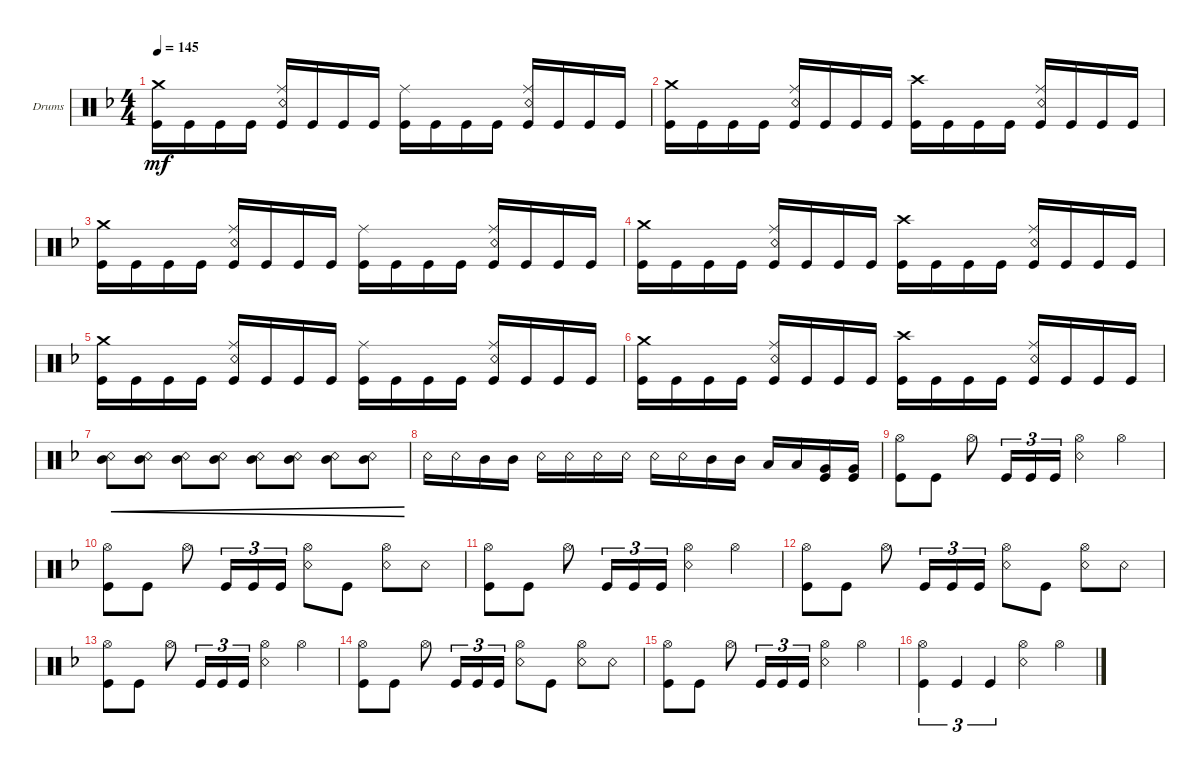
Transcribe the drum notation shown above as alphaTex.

\defaultSystemsLayout 4
\bracketExtendMode groupsimilarinstruments
\firstSystemTrackNameOrientation horizontal
\otherSystemsTrackNameOrientation horizontal
\track ("Drumkit" "Drums") {instrument percussion}
\staff {score}
\articulation defaults
\ts (4 4)
\tempo 145
\clef neutral
\ks dminor
("Kick (hit)" "Crash medium (hit)").16{dy mf} "Kick (hit)".16 "Kick (hit)".16 "Kick (hit)".16 ("Kick (hit)" "Ride (middle)" "Snare (rim shot)").16 "Kick (hit)".16 "Kick (hit)".16 "Kick (hit)".16 ("Kick (hit)" "Ride (middle)").16 "Kick (hit)".16 "Kick (hit)".16 "Kick (hit)".16 ("Kick (hit)" "Ride (middle)" "Snare (rim shot)").16 "Kick (hit)".16 "Kick (hit)".16 "Kick (hit)".16 |
("Kick (hit)" "Crash medium (hit)").16 "Kick (hit)".16 "Kick (hit)".16 "Kick (hit)".16 ("Kick (hit)" "Ride (middle)" "Snare (rim shot)").16 "Kick (hit)".16 "Kick (hit)".16 "Kick (hit)".16 ("Kick (hit)" "Crash high (hit)").16 "Kick (hit)".16 "Kick (hit)".16 "Kick (hit)".16 ("Kick (hit)" "Ride (middle)" "Snare (rim shot)").16 "Kick (hit)".16 "Kick (hit)".16 "Kick (hit)".16 |
("Kick (hit)" "Crash medium (hit)").16 "Kick (hit)".16 "Kick (hit)".16 "Kick (hit)".16 ("Kick (hit)" "Ride (middle)" "Snare (rim shot)").16 "Kick (hit)".16 "Kick (hit)".16 "Kick (hit)".16 ("Kick (hit)" "Ride (middle)").16 "Kick (hit)".16 "Kick (hit)".16 "Kick (hit)".16 ("Kick (hit)" "Ride (middle)" "Snare (rim shot)").16 "Kick (hit)".16 "Kick (hit)".16 "Kick (hit)".16 |
("Kick (hit)" "Crash medium (hit)").16 "Kick (hit)".16 "Kick (hit)".16 "Kick (hit)".16 ("Kick (hit)" "Ride (middle)" "Snare (rim shot)").16 "Kick (hit)".16 "Kick (hit)".16 "Kick (hit)".16 ("Kick (hit)" "Crash high (hit)").16 "Kick (hit)".16 "Kick (hit)".16 "Kick (hit)".16 ("Kick (hit)" "Ride (middle)" "Snare (rim shot)").16 "Kick (hit)".16 "Kick (hit)".16 "Kick (hit)".16 |
("Kick (hit)" "Crash medium (hit)").16 "Kick (hit)".16 "Kick (hit)".16 "Kick (hit)".16 ("Kick (hit)" "Ride (middle)" "Snare (rim shot)").16 "Kick (hit)".16 "Kick (hit)".16 "Kick (hit)".16 ("Kick (hit)" "Ride (middle)").16 "Kick (hit)".16 "Kick (hit)".16 "Kick (hit)".16 ("Kick (hit)" "Ride (middle)" "Snare (rim shot)").16 "Kick (hit)".16 "Kick (hit)".16 "Kick (hit)".16 |
("Kick (hit)" "Crash medium (hit)").16 "Kick (hit)".16 "Kick (hit)".16 "Kick (hit)".16 ("Kick (hit)" "Ride (middle)" "Snare (rim shot)").16 "Kick (hit)".16 "Kick (hit)".16 "Kick (hit)".16 ("Kick (hit)" "Crash high (hit)").16 "Kick (hit)".16 "Kick (hit)".16 "Kick (hit)".16 ("Kick (hit)" "Ride (middle)" "Snare (rim shot)").16 "Kick (hit)".16 "Kick (hit)".16 "Kick (hit)".16 |
("Snare (rim shot)" "Mid Tom (hit)").8{cre} ("Snare (rim shot)" "Mid Tom (hit)").8{cre} ("Snare (rim shot)" "Mid Tom (hit)").8{cre} ("Snare (rim shot)" "Mid Tom (hit)").8{cre} ("Snare (rim shot)" "Mid Tom (hit)").8{cre} ("Snare (rim shot)" "Mid Tom (hit)").8{cre} ("Snare (rim shot)" "Mid Tom (hit)").8{cre} ("Snare (rim shot)" "Mid Tom (hit)").8{cre} |
"Snare (rim shot)".16 "Snare (rim shot)".16 "Mid Tom (hit)".16 "Mid Tom (hit)".16 "Snare (rim shot)".16 "Snare (rim shot)".16 "Snare (rim shot)".16 "Snare (rim shot)".16 "Snare (rim shot)".16 "Snare (rim shot)".16 "Mid Tom (hit)".16 "Mid Tom (hit)".16 "Low Tom (hit)".16 "Low Tom (hit)".16 ("Kick (hit)" "Very Low Tom (hit)").16 ("Very Low Tom (hit)" "Kick (hit)").16 |
("Kick (hit)" "Hi-Hat (open)").8 "Kick (hit)".8 "Hi-Hat (open)".8 "Kick (hit)".16{tu (3 2)} "Kick (hit)".16{tu (3 2)} "Kick (hit)".16{tu (3 2)} ("Hi-Hat (open)" "Snare (rim shot)").4 "Hi-Hat (open)".4 |
("Kick (hit)" "Hi-Hat (open)").8 "Kick (hit)".8 "Hi-Hat (open)".8 "Kick (hit)".16{tu (3 2)} "Kick (hit)".16{tu (3 2)} "Kick (hit)".16{tu (3 2)} ("Hi-Hat (open)" "Snare (rim shot)").8 "Kick (hit)".8 ("Hi-Hat (open)" "Snare (rim shot)").8 "Snare (rim shot)".8 |
("Kick (hit)" "Hi-Hat (open)").8 "Kick (hit)".8 "Hi-Hat (open)".8 "Kick (hit)".16{tu (3 2)} "Kick (hit)".16{tu (3 2)} "Kick (hit)".16{tu (3 2)} ("Hi-Hat (open)" "Snare (rim shot)").4 "Hi-Hat (open)".4 |
("Kick (hit)" "Hi-Hat (open)").8 "Kick (hit)".8 "Hi-Hat (open)".8 "Kick (hit)".16{tu (3 2)} "Kick (hit)".16{tu (3 2)} "Kick (hit)".16{tu (3 2)} ("Hi-Hat (open)" "Snare (rim shot)").8 "Kick (hit)".8 ("Hi-Hat (open)" "Snare (rim shot)").8 "Snare (rim shot)".8 |
("Kick (hit)" "Hi-Hat (open)").8 "Kick (hit)".8 "Hi-Hat (open)".8 "Kick (hit)".16{tu (3 2)} "Kick (hit)".16{tu (3 2)} "Kick (hit)".16{tu (3 2)} ("Hi-Hat (open)" "Snare (rim shot)").4 "Hi-Hat (open)".4 |
("Kick (hit)" "Hi-Hat (open)").8 "Kick (hit)".8 "Hi-Hat (open)".8 "Kick (hit)".16{tu (3 2)} "Kick (hit)".16{tu (3 2)} "Kick (hit)".16{tu (3 2)} ("Hi-Hat (open)" "Snare (rim shot)").8 "Kick (hit)".8 ("Hi-Hat (open)" "Snare (rim shot)").8 "Snare (rim shot)".8 |
("Kick (hit)" "Hi-Hat (open)").8 "Kick (hit)".8 "Hi-Hat (open)".8 "Kick (hit)".16{tu (3 2)} "Kick (hit)".16{tu (3 2)} "Kick (hit)".16{tu (3 2)} ("Hi-Hat (open)" "Snare (rim shot)").4 "Hi-Hat (open)".4 |
("Kick (hit)" "Hi-Hat (open)").4{tu (3 2)} "Kick (hit)".4{tu (3 2)} "Kick (hit)".4{tu (3 2)} ("Hi-Hat (open)" "Snare (rim shot)").4 "Hi-Hat (open)".4
